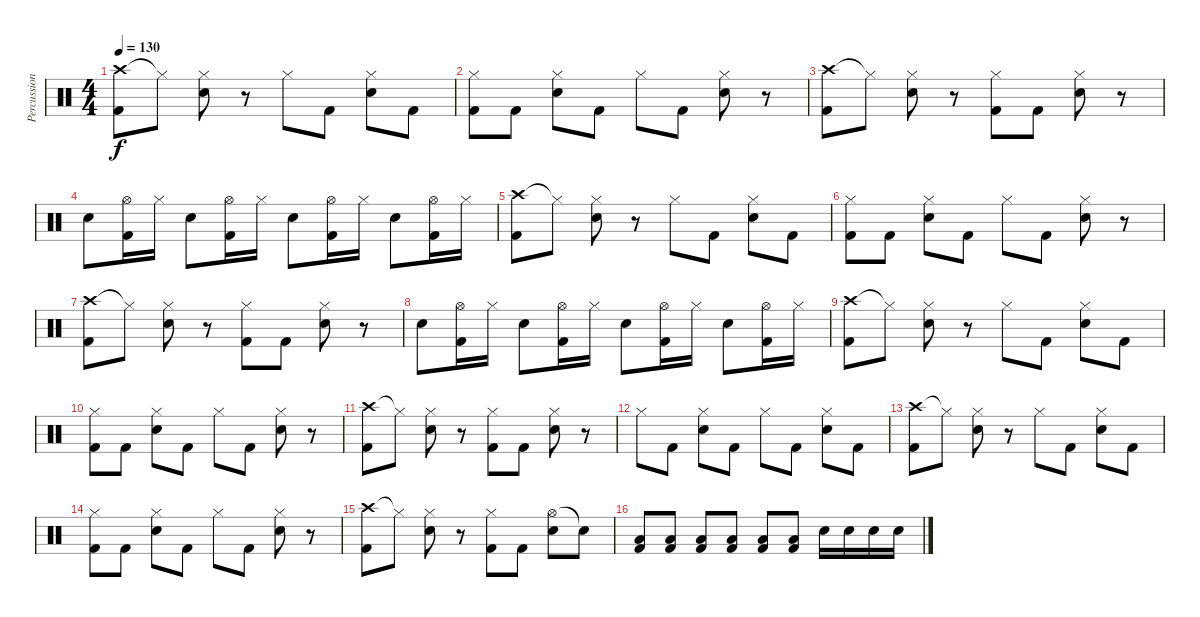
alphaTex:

\track ("Percussion" "Percussion") {instrument percussion}
\staff {score}
\articulation defaults
\ts (4 4)
\tempo 130
\clef neutral
\ks c
("Crash high (hit)" "Kick (hit) 2").8{dy f} "Hi-Hat (closed)"{t}.8 ("Hi-Hat (closed)" "Snare (hit) 2").8 r.8 "Hi-Hat (closed)".8 "Kick (hit) 2".8 ("Hi-Hat (closed)" "Snare (hit) 2").8 "Kick (hit) 2".8 |
("Hi-Hat (closed)" "Kick (hit) 2").8 "Kick (hit) 2".8 ("Hi-Hat (closed)" "Snare (hit) 2").8 "Kick (hit) 2".8 "Hi-Hat (closed)".8 "Kick (hit) 2".8 ("Hi-Hat (closed)" "Snare (hit) 2").8 r.8 |
("Crash high (hit)" "Kick (hit) 2").8 "Hi-Hat (closed)"{t}.8 ("Hi-Hat (closed)" "Snare (hit) 2").8 r.8 ("Hi-Hat (closed)" "Kick (hit) 2").8 "Kick (hit) 2".8 ("Hi-Hat (closed)" "Snare (hit) 2").8 r.8 |
"Snare (hit) 2".8 ("Hi-Hat (open)" "Kick (hit) 2").16 "Hi-Hat (closed)".16 "Snare (hit) 2".8 ("Hi-Hat (open)" "Kick (hit) 2").16 "Hi-Hat (closed)".16 "Snare (hit) 2".8 ("Hi-Hat (open)" "Kick (hit) 2").16 "Hi-Hat (closed)".16 "Snare (hit) 2".8 ("Hi-Hat (open)" "Kick (hit) 2").16 "Hi-Hat (closed)".16 |
("Crash high (hit)" "Kick (hit) 2").8 "Hi-Hat (closed)"{t}.8 ("Hi-Hat (closed)" "Snare (hit) 2").8 r.8 "Hi-Hat (closed)".8 "Kick (hit) 2".8 ("Hi-Hat (closed)" "Snare (hit) 2").8 "Kick (hit) 2".8 |
("Hi-Hat (closed)" "Kick (hit) 2").8 "Kick (hit) 2".8 ("Hi-Hat (closed)" "Snare (hit) 2").8 "Kick (hit) 2".8 "Hi-Hat (closed)".8 "Kick (hit) 2".8 ("Hi-Hat (closed)" "Snare (hit) 2").8 r.8 |
("Crash high (hit)" "Kick (hit) 2").8 "Hi-Hat (closed)"{t}.8 ("Hi-Hat (closed)" "Snare (hit) 2").8 r.8 ("Hi-Hat (closed)" "Kick (hit) 2").8 "Kick (hit) 2".8 ("Hi-Hat (closed)" "Snare (hit) 2").8 r.8 |
"Snare (hit) 2".8 ("Hi-Hat (open)" "Kick (hit) 2").16 "Hi-Hat (closed)".16 "Snare (hit) 2".8 ("Hi-Hat (open)" "Kick (hit) 2").16 "Hi-Hat (closed)".16 "Snare (hit) 2".8 ("Hi-Hat (open)" "Kick (hit) 2").16 "Hi-Hat (closed)".16 "Snare (hit) 2".8 ("Hi-Hat (open)" "Kick (hit) 2").16 "Hi-Hat (closed)".16 |
("Crash high (hit)" "Kick (hit) 2").8 "Hi-Hat (closed)"{t}.8 ("Hi-Hat (closed)" "Snare (hit) 2").8 r.8 "Hi-Hat (closed)".8 "Kick (hit) 2".8 ("Hi-Hat (closed)" "Snare (hit) 2").8 "Kick (hit) 2".8 |
("Hi-Hat (closed)" "Kick (hit) 2").8 "Kick (hit) 2".8 ("Hi-Hat (closed)" "Snare (hit) 2").8 "Kick (hit) 2".8 "Hi-Hat (closed)".8 "Kick (hit) 2".8 ("Hi-Hat (closed)" "Snare (hit) 2").8 r.8 |
("Crash high (hit)" "Kick (hit) 2").8 "Hi-Hat (closed)"{t}.8 ("Hi-Hat (closed)" "Snare (hit) 2").8 r.8 ("Hi-Hat (closed)" "Kick (hit) 2").8 "Kick (hit) 2".8 ("Hi-Hat (closed)" "Snare (hit) 2").8 r.8 |
"Hi-Hat (closed)".8 "Kick (hit) 2".8 ("Hi-Hat (closed)" "Snare (hit) 2").8 "Kick (hit) 2".8 "Hi-Hat (closed)".8 "Kick (hit) 2".8 ("Hi-Hat (closed)" "Snare (hit) 2").8 "Kick (hit) 2".8 |
("Crash high (hit)" "Kick (hit) 2").8 "Hi-Hat (closed)"{t}.8 ("Hi-Hat (closed)" "Snare (hit) 2").8 r.8 "Hi-Hat (closed)".8 "Kick (hit) 2".8 ("Hi-Hat (closed)" "Snare (hit) 2").8 "Kick (hit) 2".8 |
("Hi-Hat (closed)" "Kick (hit) 2").8 "Kick (hit) 2".8 ("Hi-Hat (closed)" "Snare (hit) 2").8 "Kick (hit) 2".8 "Hi-Hat (closed)".8 "Kick (hit) 2".8 ("Hi-Hat (closed)" "Snare (hit) 2").8 r.8 |
("Crash high (hit)" "Kick (hit) 2").8 "Hi-Hat (closed)"{t}.8 ("Hi-Hat (closed)" "Snare (hit) 2").8 r.8 ("Hi-Hat (closed)" "Kick (hit) 2").8 "Kick (hit) 2".8 ("Hi-Hat (open)" "Snare (hit) 2").8 "Snare (hit)"{t}.8 |
("Low Floor Tom (hit)" "Kick (hit) 2").8 ("Low Floor Tom (hit)" "Kick (hit) 2").8 ("Low Floor Tom (hit)" "Kick (hit) 2").8 ("Low Floor Tom (hit)" "Kick (hit) 2").8 ("Low Floor Tom (hit)" "Kick (hit) 2").8 ("Low Floor Tom (hit)" "Kick (hit) 2").8 "Snare (hit) 2".16 "Snare (hit) 2".16 "Snare (hit) 2".16 "Snare (hit) 2".16
